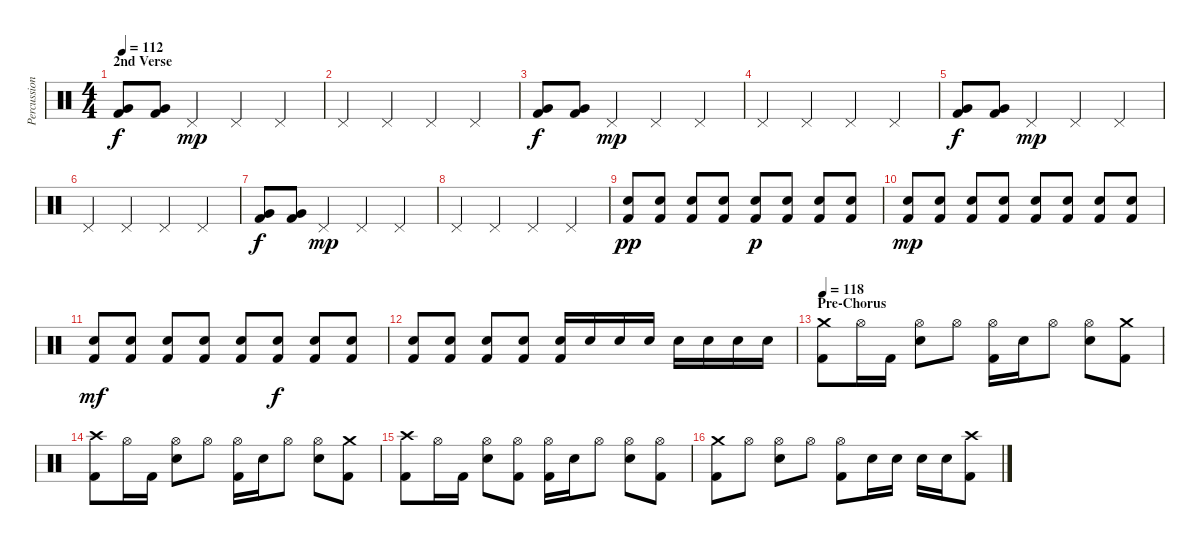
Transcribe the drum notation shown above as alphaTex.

\track ("Percussion" "Percussion") {instrument percussion}
\staff {score}
\articulation defaults
\ts (4 4)
\section ("" "2nd Verse")
\tempo 112
\clef neutral
\ks c
("Kick (hit) 2" "Very Low Tom (hit)").8{dy f} ("Kick (hit) 2" "Very Low Tom (hit)").8 "Pedal Hi-Hat (hit)".4{dy mp} "Pedal Hi-Hat (hit)".4 "Pedal Hi-Hat (hit)".4 |
"Pedal Hi-Hat (hit)".4 "Pedal Hi-Hat (hit)".4 "Pedal Hi-Hat (hit)".4 "Pedal Hi-Hat (hit)".4 |
("Kick (hit) 2" "Very Low Tom (hit)").8{dy f} ("Kick (hit) 2" "Very Low Tom (hit)").8 "Pedal Hi-Hat (hit)".4{dy mp} "Pedal Hi-Hat (hit)".4 "Pedal Hi-Hat (hit)".4 |
"Pedal Hi-Hat (hit)".4 "Pedal Hi-Hat (hit)".4 "Pedal Hi-Hat (hit)".4 "Pedal Hi-Hat (hit)".4 |
("Kick (hit) 2" "Very Low Tom (hit)").8{dy f} ("Kick (hit) 2" "Very Low Tom (hit)").8 "Pedal Hi-Hat (hit)".4{dy mp} "Pedal Hi-Hat (hit)".4 "Pedal Hi-Hat (hit)".4 |
"Pedal Hi-Hat (hit)".4 "Pedal Hi-Hat (hit)".4 "Pedal Hi-Hat (hit)".4 "Pedal Hi-Hat (hit)".4 |
("Kick (hit) 2" "Very Low Tom (hit)").8{dy f} ("Kick (hit) 2" "Very Low Tom (hit)").8 "Pedal Hi-Hat (hit)".4{dy mp} "Pedal Hi-Hat (hit)".4 "Pedal Hi-Hat (hit)".4 |
"Pedal Hi-Hat (hit)".4 "Pedal Hi-Hat (hit)".4 "Pedal Hi-Hat (hit)".4 "Pedal Hi-Hat (hit)".4 |
("Kick (hit) 2" "Snare (hit) 2").8{dy pp} ("Kick (hit) 2" "Snare (hit) 2").8 ("Kick (hit) 2" "Snare (hit) 2").8 ("Kick (hit) 2" "Snare (hit) 2").8 ("Kick (hit) 2" "Snare (hit) 2").8{dy p} ("Kick (hit) 2" "Snare (hit) 2").8 ("Kick (hit) 2" "Snare (hit) 2").8 ("Kick (hit) 2" "Snare (hit) 2").8 |
("Kick (hit) 2" "Snare (hit) 2").8{dy mp} ("Kick (hit) 2" "Snare (hit) 2").8 ("Kick (hit) 2" "Snare (hit) 2").8 ("Kick (hit) 2" "Snare (hit) 2").8 ("Kick (hit) 2" "Snare (hit) 2").8 ("Kick (hit) 2" "Snare (hit) 2").8 ("Kick (hit) 2" "Snare (hit) 2").8 ("Kick (hit) 2" "Snare (hit) 2").8 |
("Kick (hit) 2" "Snare (hit) 2").8{dy mf} ("Kick (hit) 2" "Snare (hit) 2").8 ("Kick (hit) 2" "Snare (hit) 2").8 ("Kick (hit) 2" "Snare (hit) 2").8 ("Kick (hit) 2" "Snare (hit) 2").8 ("Kick (hit) 2" "Snare (hit) 2").8{dy f} ("Kick (hit) 2" "Snare (hit) 2").8 ("Kick (hit) 2" "Snare (hit) 2").8 |
("Kick (hit) 2" "Snare (hit) 2").8 ("Kick (hit) 2" "Snare (hit) 2").8 ("Kick (hit) 2" "Snare (hit) 2").8 ("Kick (hit) 2" "Snare (hit) 2").8 ("Kick (hit) 2" "Electric Snare (hit)").16 "Electric Snare (hit)".16 "Electric Snare (hit)".16 "Electric Snare (hit)".16 "Electric Snare (hit)".16 "Electric Snare (hit)".16 "Electric Snare (hit)".16 "Electric Snare (hit)".16 |
\section ("" "Pre-Chorus")
\tempo 118
("Kick (hit) 2" "Crash medium (hit)").8 "Hi-Hat (open)".16 "Kick (hit) 2".16 ("Electric Snare (hit)" "Hi-Hat (open)").8 "Hi-Hat (open)".8 ("Kick (hit) 2" "Hi-Hat (open)").16 "Electric Snare (hit)".16 "Hi-Hat (open)".8 ("Electric Snare (hit)" "Hi-Hat (open)").8 ("Kick (hit) 2" "Crash medium (hit)").8 |
("Kick (hit) 2" "Crash high (hit)").8 "Hi-Hat (open)".16 "Kick (hit) 2".16 ("Electric Snare (hit)" "Hi-Hat (open)").8 "Hi-Hat (open)".8 ("Kick (hit) 2" "Hi-Hat (open)").16 "Electric Snare (hit)".16 "Hi-Hat (open)".8 ("Electric Snare (hit)" "Hi-Hat (open)").8 ("Kick (hit) 2" "Crash medium (hit)").8 |
("Kick (hit) 2" "Crash high (hit)").8 "Hi-Hat (open)".16 "Kick (hit) 2".16 ("Electric Snare (hit)" "Hi-Hat (open)").8 ("Kick (hit) 2" "Hi-Hat (open)").8 ("Kick (hit) 2" "Hi-Hat (open)").16 "Electric Snare (hit)".16 "Hi-Hat (open)".8 ("Electric Snare (hit)" "Hi-Hat (open)").8 ("Kick (hit) 2" "Hi-Hat (open)").8 |
("Kick (hit) 2" "Crash medium (hit)").8 "Hi-Hat (open)".8 ("Electric Snare (hit)" "Hi-Hat (open)").8 "Hi-Hat (open)".8 ("Kick (hit) 2" "Hi-Hat (open)").8 "Electric Snare (hit)".16 "Electric Snare (hit)".16 "Electric Snare (hit)".16 "Electric Snare (hit)".16 ("Kick (hit) 2" "Crash high (hit)").8
